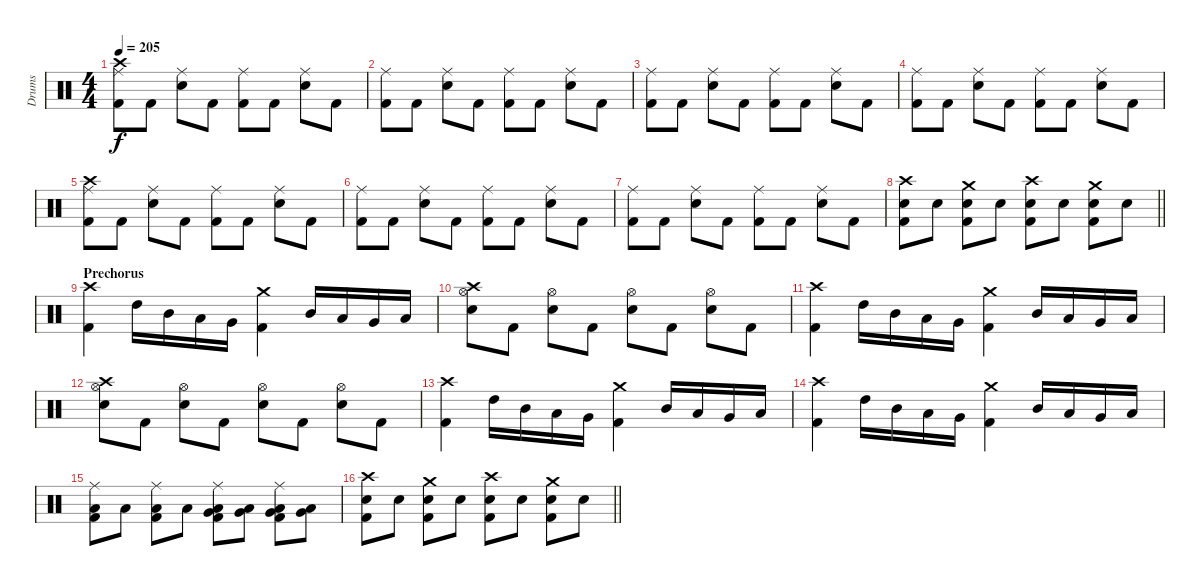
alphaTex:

\track ("Drums" "Drums") {instrument percussion}
\staff {score}
\articulation defaults
\ts (4 4)
\tempo 205
\clef neutral
\ks c
("Crash high (hit)" "Ride (middle)" "Kick (hit) 2").8{dy f} "Kick (hit) 2".8 ("Ride (middle)" "Snare (hit) 2").8 "Kick (hit) 2".8 ("Ride (middle)" "Kick (hit) 2").8 "Kick (hit) 2".8 ("Ride (middle)" "Snare (hit) 2").8 "Kick (hit) 2".8 |
("Ride (middle)" "Kick (hit) 2").8 "Kick (hit) 2".8 ("Ride (middle)" "Snare (hit) 2").8 "Kick (hit) 2".8 ("Ride (middle)" "Kick (hit) 2").8 "Kick (hit) 2".8 ("Ride (middle)" "Snare (hit) 2").8 "Kick (hit) 2".8 |
("Ride (middle)" "Kick (hit) 2").8 "Kick (hit) 2".8 ("Ride (middle)" "Snare (hit) 2").8 "Kick (hit) 2".8 ("Ride (middle)" "Kick (hit) 2").8 "Kick (hit) 2".8 ("Ride (middle)" "Snare (hit) 2").8 "Kick (hit) 2".8 |
("Ride (middle)" "Kick (hit) 2").8 "Kick (hit) 2".8 ("Ride (middle)" "Snare (hit) 2").8 "Kick (hit) 2".8 ("Ride (middle)" "Kick (hit) 2").8 "Kick (hit) 2".8 ("Ride (middle)" "Snare (hit) 2").8 "Kick (hit) 2".8 |
("Crash high (hit)" "Ride (middle)" "Kick (hit) 2").8 "Kick (hit) 2".8 ("Ride (middle)" "Snare (hit) 2").8 "Kick (hit) 2".8 ("Ride (middle)" "Kick (hit) 2").8 "Kick (hit) 2".8 ("Ride (middle)" "Snare (hit) 2").8 "Kick (hit) 2".8 |
("Ride (middle)" "Kick (hit) 2").8 "Kick (hit) 2".8 ("Ride (middle)" "Snare (hit) 2").8 "Kick (hit) 2".8 ("Ride (middle)" "Kick (hit) 2").8 "Kick (hit) 2".8 ("Ride (middle)" "Snare (hit) 2").8 "Kick (hit) 2".8 |
("Ride (middle)" "Kick (hit) 2").8 "Kick (hit) 2".8 ("Ride (middle)" "Snare (hit) 2").8 "Kick (hit) 2".8 ("Ride (middle)" "Kick (hit) 2").8 "Kick (hit) 2".8 ("Ride (middle)" "Snare (hit) 2").8 "Kick (hit) 2".8 |
\barLineRight lightlight
("Crash high (hit)" "Snare (hit) 2" "Kick (hit) 2").8 "Snare (hit) 2".8 ("Crash medium (hit)" "Snare (hit) 2" "Kick (hit) 2").8 "Snare (hit) 2".8 ("Crash high (hit)" "Snare (hit) 2" "Kick (hit) 2").8 "Snare (hit) 2".8 ("Crash medium (hit)" "Snare (hit) 2" "Kick (hit) 2").8 "Snare (hit) 2".8 |
\section ("" "Prechorus")
("Crash high (hit)" "Kick (hit) 2").4 "High Tom (hit)".16 "Mid Tom (hit)".16 "Low Tom (hit)".16 "Very Low Tom (hit)".16 ("Crash medium (hit)" "Kick (hit) 2").4 "Mid Tom (hit)".16 "Low Tom (hit)".16 "Very Low Tom (hit)".16 "Low Floor Tom (hit)".16 |
("Crash high (hit)" "Hi-Hat (open)" "Snare (hit) 2").8 "Kick (hit) 2".8 ("Hi-Hat (open)" "Snare (hit) 2").8 "Kick (hit) 2".8 ("Hi-Hat (open)" "Snare (hit) 2").8 "Kick (hit) 2".8 ("Hi-Hat (open)" "Snare (hit) 2").8 "Kick (hit) 2".8 |
("Crash high (hit)" "Kick (hit) 2").4 "High Tom (hit)".16 "Mid Tom (hit)".16 "Low Tom (hit)".16 "Very Low Tom (hit)".16 ("Crash medium (hit)" "Kick (hit) 2").4 "Mid Tom (hit)".16 "Low Tom (hit)".16 "Very Low Tom (hit)".16 "Low Floor Tom (hit)".16 |
("Crash high (hit)" "Hi-Hat (open)" "Snare (hit) 2").8 "Kick (hit) 2".8 ("Hi-Hat (open)" "Snare (hit) 2").8 "Kick (hit) 2".8 ("Hi-Hat (open)" "Snare (hit) 2").8 "Kick (hit) 2".8 ("Hi-Hat (open)" "Snare (hit) 2").8 "Kick (hit) 2".8 |
("Crash high (hit)" "Kick (hit) 2").4 "High Tom (hit)".16 "Mid Tom (hit)".16 "Low Tom (hit)".16 "Very Low Tom (hit)".16 ("Crash medium (hit)" "Kick (hit) 2").4 "Mid Tom (hit)".16 "Low Tom (hit)".16 "Very Low Tom (hit)".16 "Low Floor Tom (hit)".16 |
("Crash high (hit)" "Kick (hit) 2").4 "High Tom (hit)".16 "Mid Tom (hit)".16 "Low Tom (hit)".16 "Very Low Tom (hit)".16 ("Crash medium (hit)" "Kick (hit) 2").4 "Mid Tom (hit)".16 "Low Tom (hit)".16 "Very Low Tom (hit)".16 "Low Floor Tom (hit)".16 |
("Ride (middle)" "Low Floor Tom (hit)" "Kick (hit) 2").8 "Low Floor Tom (hit)".8 ("Ride (middle)" "Low Floor Tom (hit)" "Kick (hit) 2").8 "Low Floor Tom (hit)".8 ("Ride (middle)" "Very Low Tom (hit)" "Low Floor Tom (hit)" "Kick (hit) 2").8 ("Very Low Tom (hit)" "Low Floor Tom (hit)").8 ("Ride (middle)" "Very Low Tom (hit)" "Low Floor Tom (hit)" "Kick (hit) 2").8 ("Very Low Tom (hit)" "Low Floor Tom (hit)").8 |
\barLineRight lightlight
("Crash high (hit)" "Snare (hit) 2" "Kick (hit) 2").8 "Snare (hit) 2".8 ("Crash medium (hit)" "Snare (hit) 2" "Kick (hit) 2").8 "Snare (hit) 2".8 ("Crash high (hit)" "Snare (hit) 2" "Kick (hit) 2").8 "Snare (hit) 2".8 ("Crash medium (hit)" "Snare (hit) 2" "Kick (hit) 2").8 "Snare (hit) 2".8
